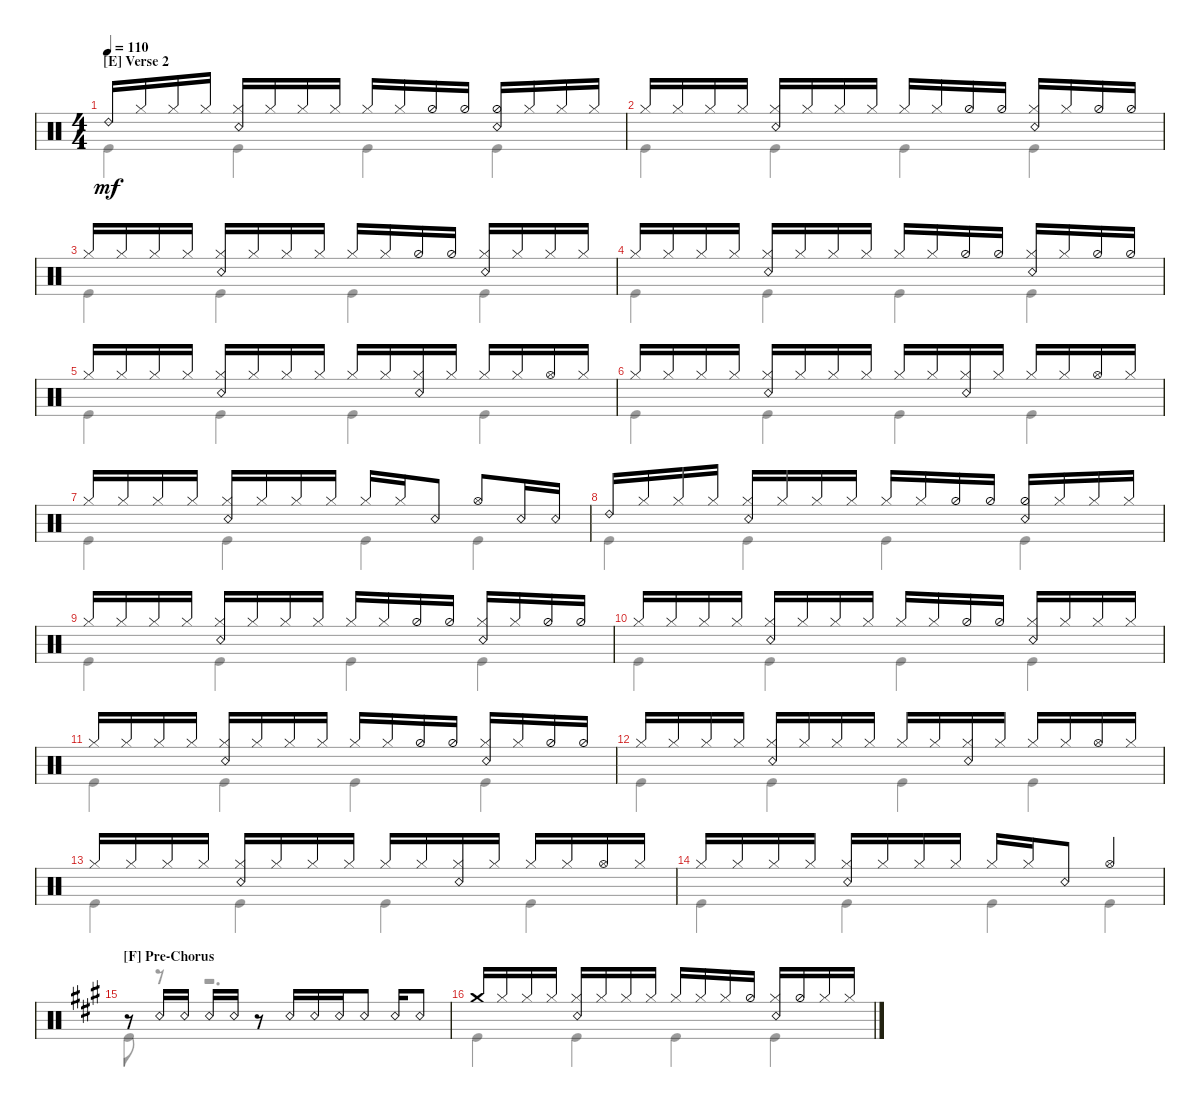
\defaultSystemsLayout 4
\bracketExtendMode groupsimilarinstruments
\singleTrackTrackNamePolicy hidden
\multiTrackTrackNamePolicy hidden
\firstSystemTrackNameOrientation horizontal
\otherSystemsTrackNameOrientation horizontal
\track ("Максим Удалов" "Drums") {instrument percussion}
\staff {score}
\articulation defaults
\voice
\ts (4 4)
\section ("E" "Verse 2")
\tempo 110
\clef neutral
\scale
1.02648
\ks c "Ride (bell) 2".16{dy mf} "Hi-Hat (closed)".16 "Hi-Hat (closed)".16 "Hi-Hat (closed)".16
("Hi-Hat (closed)" "Snare (rim shot)").16 "Hi-Hat (closed)".16 "Hi-Hat (closed)".16 "Hi-Hat (closed)".16 "Hi-Hat (closed)".16 "Hi-Hat (closed)".16 "Hi-Hat (half)".16 "Hi-Hat (half)".16 ("Hi-Hat (half)" "Snare (rim shot)").16 "Hi-Hat (closed)".16 "Hi-Hat (closed)".16 "Hi-Hat (closed)".16 |
\scale
0.973518 "Hi-Hat (closed)".16 "Hi-Hat (closed)".16 "Hi-Hat (closed)".16 "Hi-Hat (closed)".16 ("Hi-Hat (closed)" "Snare (rim shot)").16 "Hi-Hat (closed)".16 "Hi-Hat (closed)".16 "Hi-Hat (closed)".16 "Hi-Hat (closed)".16 "Hi-Hat (closed)".16 "Hi-Hat (half)".16 "Hi-Hat (half)".16 ("Snare (rim shot)" "Hi-Hat (closed)").16 "Hi-Hat (closed)".16 "Hi-Hat (half)".16 "Hi-Hat (half)".16 |
\scale
1.02648 "Hi-Hat (closed)".16 "Hi-Hat (closed)".16 "Hi-Hat (closed)".16 "Hi-Hat (closed)".16 ("Hi-Hat (closed)" "Snare (rim shot)").16 "Hi-Hat (closed)".16 "Hi-Hat (closed)".16 "Hi-Hat (closed)".16 "Hi-Hat (closed)".16 "Hi-Hat (closed)".16 "Hi-Hat (half)".16 "Hi-Hat (half)".16 ("Snare (rim shot)" "Hi-Hat (closed)").16 "Hi-Hat (closed)".16 "Hi-Hat (closed)".16 "Hi-Hat (closed)".16 |
\scale
0.973518 "Hi-Hat (closed)".16 "Hi-Hat (closed)".16 "Hi-Hat (closed)".16 "Hi-Hat (closed)".16 ("Hi-Hat (closed)" "Snare (rim shot)").16 "Hi-Hat (closed)".16 "Hi-Hat (closed)".16 "Hi-Hat (closed)".16 "Hi-Hat (closed)".16 "Hi-Hat (closed)".16 "Hi-Hat (half)".16 "Hi-Hat (half)".16 ("Snare (rim shot)" "Hi-Hat (closed)").16 "Hi-Hat (closed)".16 "Hi-Hat (half)".16 "Hi-Hat (half)".16 |
\scale
1.02648 "Hi-Hat (closed)".16 "Hi-Hat (closed)".16 "Hi-Hat (closed)".16 "Hi-Hat (closed)".16 ("Hi-Hat (closed)" "Snare (rim shot)").16 "Hi-Hat (closed)".16 "Hi-Hat (closed)".16 "Hi-Hat (closed)".16 "Hi-Hat (closed)".16 "Hi-Hat (closed)".16 ("Hi-Hat (closed)" "Snare (rim shot)").16 "Hi-Hat (closed)".16 "Hi-Hat (closed)".16 "Hi-Hat (closed)".16 "Hi-Hat (open)".16 "Hi-Hat (closed)".16 |
\scale
0.973518 "Hi-Hat (closed)".16 "Hi-Hat (closed)".16 "Hi-Hat (closed)".16 "Hi-Hat (closed)".16 ("Hi-Hat (closed)" "Snare (rim shot)").16 "Hi-Hat (closed)".16 "Hi-Hat (closed)".16 "Hi-Hat (closed)".16 "Hi-Hat (closed)".16 "Hi-Hat (closed)".16 ("Hi-Hat (closed)" "Snare (rim shot)").16 "Hi-Hat (closed)".16 "Hi-Hat (closed)".16 "Hi-Hat (closed)".16 "Hi-Hat (open)".16 "Hi-Hat (closed)".16 |
\scale
1.02648 "Hi-Hat (closed)".16 "Hi-Hat (closed)".16 "Hi-Hat (closed)".16 "Hi-Hat (closed)".16 ("Hi-Hat (closed)" "Snare (rim shot)").16 "Hi-Hat (closed)".16 "Hi-Hat (closed)".16 "Hi-Hat (closed)".16 "Hi-Hat (closed)".16 "Hi-Hat (closed)".16 "Snare (rim shot)".8 "Hi-Hat (open)".8 "Snare (rim shot)".16 "Snare (rim shot)".16 |
\scale
0.973518 "Ride (bell) 2".16 "Hi-Hat (closed)".16 "Hi-Hat (closed)".16 "Hi-Hat (closed)".16 ("Hi-Hat (closed)" "Snare (rim shot)").16 "Hi-Hat (closed)".16 "Hi-Hat (closed)".16 "Hi-Hat (closed)".16 "Hi-Hat (closed)".16 "Hi-Hat (closed)".16 "Hi-Hat (half)".16 "Hi-Hat (half)".16 ("Hi-Hat (half)" "Snare (rim shot)").16 "Hi-Hat (closed)".16 "Hi-Hat (closed)".16 "Hi-Hat (closed)".16 |
\scale
1.02648 "Hi-Hat (closed)".16 "Hi-Hat (closed)".16 "Hi-Hat (closed)".16 "Hi-Hat (closed)".16 ("Hi-Hat (closed)" "Snare (rim shot)").16 "Hi-Hat (closed)".16 "Hi-Hat (closed)".16 "Hi-Hat (closed)".16 "Hi-Hat (closed)".16 "Hi-Hat (closed)".16 "Hi-Hat (half)".16 "Hi-Hat (half)".16 ("Snare (rim shot)" "Hi-Hat (closed)").16 "Hi-Hat (closed)".16 "Hi-Hat (half)".16 "Hi-Hat (half)".16 |
\scale
0.973518 "Hi-Hat (closed)".16 "Hi-Hat (closed)".16 "Hi-Hat (closed)".16 "Hi-Hat (closed)".16 ("Hi-Hat (closed)" "Snare (rim shot)").16 "Hi-Hat (closed)".16 "Hi-Hat (closed)".16 "Hi-Hat (closed)".16 "Hi-Hat (closed)".16 "Hi-Hat (closed)".16 "Hi-Hat (half)".16 "Hi-Hat (half)".16 ("Snare (rim shot)" "Hi-Hat (closed)").16 "Hi-Hat (closed)".16 "Hi-Hat (closed)".16 "Hi-Hat (closed)".16 |
\scale
1.02648 "Hi-Hat (closed)".16 "Hi-Hat (closed)".16 "Hi-Hat (closed)".16 "Hi-Hat (closed)".16 ("Hi-Hat (closed)" "Snare (rim shot)").16 "Hi-Hat (closed)".16 "Hi-Hat (closed)".16 "Hi-Hat (closed)".16 "Hi-Hat (closed)".16 "Hi-Hat (closed)".16 "Hi-Hat (half)".16 "Hi-Hat (half)".16 ("Snare (rim shot)" "Hi-Hat (closed)").16 "Hi-Hat (closed)".16 "Hi-Hat (half)".16 "Hi-Hat (half)".16 |
\scale
0.973518 "Hi-Hat (closed)".16 "Hi-Hat (closed)".16 "Hi-Hat (closed)".16 "Hi-Hat (closed)".16 ("Hi-Hat (closed)" "Snare (rim shot)").16 "Hi-Hat (closed)".16 "Hi-Hat (closed)".16 "Hi-Hat (closed)".16 "Hi-Hat (closed)".16 "Hi-Hat (closed)".16 ("Hi-Hat (closed)" "Snare (rim shot)").16 "Hi-Hat (closed)".16 "Hi-Hat (closed)".16 "Hi-Hat (closed)".16 "Hi-Hat (open)".16 "Hi-Hat (closed)".16 |
\scale
1.02648 "Hi-Hat (closed)".16 "Hi-Hat (closed)".16 "Hi-Hat (closed)".16 "Hi-Hat (closed)".16 ("Hi-Hat (closed)" "Snare (rim shot)").16 "Hi-Hat (closed)".16 "Hi-Hat (closed)".16 "Hi-Hat (closed)".16 "Hi-Hat (closed)".16 "Hi-Hat (closed)".16 ("Hi-Hat (closed)" "Snare (rim shot)").16 "Hi-Hat (closed)".16 "Hi-Hat (closed)".16 "Hi-Hat (closed)".16 "Hi-Hat (open)".16 "Hi-Hat (closed)".16 |
\scale
0.973518 "Hi-Hat (closed)".16 "Hi-Hat (closed)".16 "Hi-Hat (closed)".16 "Hi-Hat (closed)".16 ("Hi-Hat (closed)" "Snare (rim shot)").16 "Hi-Hat (closed)".16 "Hi-Hat (closed)".16 "Hi-Hat (closed)".16 "Hi-Hat (closed)".16 "Hi-Hat (closed)".16 "Snare (rim shot)".8 "Hi-Hat (open)".4 |
\section ("F" "Pre-Chorus")
\scale
1.02648
\ks a
r.8 "Snare (rim shot)".16 "Snare (rim shot)".16 "Snare (rim shot)".16 "Snare (rim shot)".16 r.8 "Snare (rim shot)".16 "Snare (rim shot)".16 "Snare (rim shot)".16 "Snare (rim shot)".8 "Snare (rim shot)".16 "Snare (rim shot)".8 |
\scale
0.973518 "Crash medium (hit)".16 "Hi-Hat (closed)".16 "Hi-Hat (closed)".16 "Hi-Hat (closed)".16 ("Hi-Hat (closed)" "Snare (rim shot)").16 "Hi-Hat (closed)".16 "Hi-Hat (closed)".16 "Hi-Hat (closed)".16 "Hi-Hat (closed)".16 "Hi-Hat (closed)".16 "Hi-Hat (closed)".16 "Hi-Hat (half)".16 ("Hi-Hat (closed)" "Snare (rim shot)").16 "Hi-Hat (half)".16 "Hi-Hat (closed)".16 "Hi-Hat (closed)".16
\voice
\clef neutral
\ottava regular
\simile none
\scale
1.02648
\ks c "Kick (hit)".4{dy mf} "Kick (hit)".4 "Kick (hit)".4 "Kick (hit)".4
|
\scale
0.973518 "Kick (hit)".4 "Kick (hit)".4 "Kick (hit)".4 "Kick (hit)".4 |
\scale
1.02648 "Kick (hit)".4 "Kick (hit)".4 "Kick (hit)".4 "Kick (hit)".4 |
\scale
0.973518 "Kick (hit)".4 "Kick (hit)".4 "Kick (hit)".4 "Kick (hit)".4 |
\scale
1.02648 "Kick (hit)".4 "Kick (hit)".4 "Kick (hit)".4 "Kick (hit)".4 |
\scale
0.973518 "Kick (hit)".4 "Kick (hit)".4 "Kick (hit)".4 "Kick (hit)".4 |
\scale
1.02648 "Kick (hit)".4 "Kick (hit)".4 "Kick (hit)".4 "Kick (hit)".4 |
\scale
0.973518 "Kick (hit)".4 "Kick (hit)".4 "Kick (hit)".4 "Kick (hit)".4 |
\scale
1.02648 "Kick (hit)".4 "Kick (hit)".4 "Kick (hit)".4 "Kick (hit)".4 |
\scale
0.973518 "Kick (hit)".4 "Kick (hit)".4 "Kick (hit)".4 "Kick (hit)".4 |
\scale
1.02648 "Kick (hit)".4 "Kick (hit)".4 "Kick (hit)".4 "Kick (hit)".4 |
\scale
0.973518 "Kick (hit)".4 "Kick (hit)".4 "Kick (hit)".4 "Kick (hit)".4 |
\scale
1.02648 "Kick (hit)".4 "Kick (hit)".4 "Kick (hit)".4 "Kick (hit)".4 |
\scale
0.973518 "Kick (hit)".4 "Kick (hit)".4 "Kick (hit)".4 "Kick (hit)".4 |
\scale
1.02648
\ks a "Kick (hit)".8
r.8 r.2{d} |
\scale
0.973518 "Kick (hit)".4 "Kick (hit)".4 "Kick (hit)".4 "Kick (hit)".4
